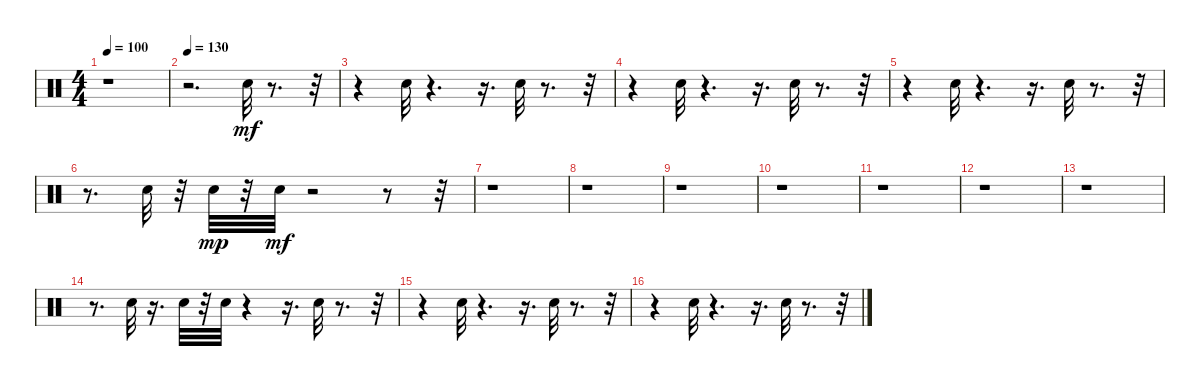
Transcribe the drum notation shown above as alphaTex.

\track "" {instrument percussion}
\staff {score}
\articulation defaults
\ts (4 4)
\tempo 100
\clef neutral
\ks c
r.1{dy mf} |
\tempo 130
r.2{d} "Electric Snare (hit)".32 r.8{d} r.32 |
r.4 "Electric Snare (hit)".32 r.4{d} r.16{d} "Electric Snare (hit)".32 r.8{d} r.32 |
r.4 "Electric Snare (hit)".32 r.4{d} r.16{d} "Electric Snare (hit)".32 r.8{d} r.32 |
r.4 "Electric Snare (hit)".32 r.4{d} r.16{d} "Electric Snare (hit)".32 r.8{d} r.32 |
r.8{d} "Electric Snare (hit)".32 r.32 "Electric Snare (hit)".32{dy mp} r.32 "Electric Snare (hit)".32{dy mf} r.2 r.8 r.32 |
r.1 |
r.1 |
r.1 |
r.1 |
r.1 |
r.1 |
r.1 |
r.8{d} "Electric Snare (hit)".32 r.16{d} "Electric Snare (hit)".32 r.32 "Electric Snare (hit)".32 r.4 r.16{d} "Electric Snare (hit)".32 r.8{d} r.32 |
r.4 "Electric Snare (hit)".32 r.4{d} r.16{d} "Electric Snare (hit)".32 r.8{d} r.32 |
r.4 "Electric Snare (hit)".32 r.4{d} r.16{d} "Electric Snare (hit)".32 r.8{d} r.32
